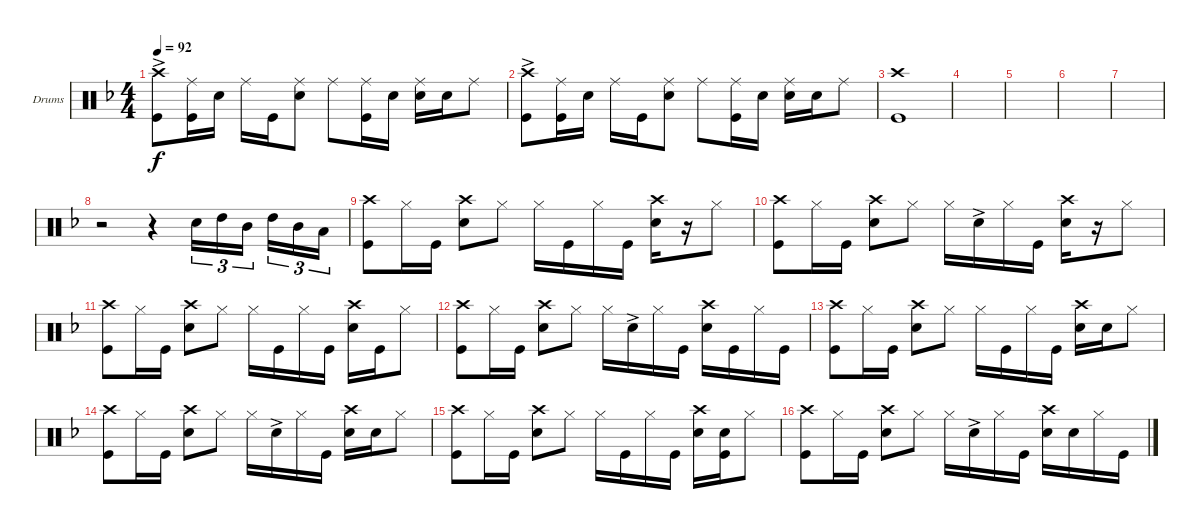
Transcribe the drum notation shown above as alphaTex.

\defaultSystemsLayout 4
\bracketExtendMode groupsimilarinstruments
\firstSystemTrackNameOrientation horizontal
\otherSystemsTrackNameOrientation horizontal
\track ("Drumkit (Collins)" "Drums") {instrument percussion}
\staff {score}
\articulation defaults
\ts (4 4)
\tempo 92
\clef neutral
\ks dminor
("Kick (hit)" "Crash high (hit)"{ac}).8{dy f} ("Kick (hit)" "Ride (middle)").16 "Snare (hit) 2".16 "Ride (middle)".16 "Kick (hit)".16 ("Snare (hit) 2" "Ride (middle)").8 "Ride (middle)".8 ("Ride (middle)" "Kick (hit)").16 "Snare (hit) 2".16 ("Snare (hit) 2" "Ride (middle)").16 "Snare (hit) 2".16 "Ride (middle)".8 |
("Kick (hit)" "Crash high (hit)"{ac}).8 ("Kick (hit)" "Ride (middle)").16 "Snare (hit) 2".16 "Ride (middle)".16 "Kick (hit)".16 ("Snare (hit) 2" "Ride (middle)").8 "Ride (middle)".8 ("Ride (middle)" "Kick (hit)").16 "Snare (hit) 2".16 ("Snare (hit) 2" "Ride (middle)").16 "Snare (hit) 2".16 "Ride (middle)".8 |
("Kick (hit)" "Crash high (hit)").1 |
|
|
|
|
r.2 r.4 "Snare (hit) 2".16{tu (3 2)} "High Tom (hit)".16{tu (3 2)} "Mid Tom (hit)".16{tu (3 2)} "High Tom (hit)".16{tu (3 2)} "Mid Tom (hit)".16{tu (3 2)} "Low Tom (hit)".16{tu (3 2)} |
("Kick (hit)" "Crash high (hit)").8 "Hi-Hat (closed)".16 "Kick (hit)".16 ("Snare (hit) 2" "Crash high (hit)").8 "Hi-Hat (closed)".8 "Hi-Hat (closed)".16 "Kick (hit)".16 "Hi-Hat (closed)".16 "Kick (hit)".16 ("Snare (hit) 2" "Crash high (hit)").16 r.16 "Hi-Hat (closed)".8 |
("Kick (hit)" "Crash high (hit)").8 "Hi-Hat (closed)".16 "Kick (hit)".16 ("Snare (hit) 2" "Crash high (hit)").8 "Hi-Hat (closed)".8 "Hi-Hat (closed)".16 "Snare (hit) 2"{ac}.16 "Hi-Hat (closed)".16 "Kick (hit)".16 ("Snare (hit) 2" "Crash high (hit)").16 r.16 "Hi-Hat (closed)".8 |
("Kick (hit)" "Crash high (hit)").8 "Hi-Hat (closed)".16 "Kick (hit)".16 ("Snare (hit) 2" "Crash high (hit)").8 "Hi-Hat (closed)".8 "Hi-Hat (closed)".16 "Kick (hit)".16 "Hi-Hat (closed)".16 "Kick (hit)".16 ("Snare (hit) 2" "Crash high (hit)").16 "Kick (hit)".16 "Hi-Hat (closed)".8 |
("Kick (hit)" "Crash high (hit)").8 "Hi-Hat (closed)".16 "Kick (hit)".16 ("Snare (hit) 2" "Crash high (hit)").8 "Hi-Hat (closed)".8 "Hi-Hat (closed)".16 "Snare (hit) 2"{ac}.16 "Hi-Hat (closed)".16 "Kick (hit)".16 ("Snare (hit) 2" "Crash high (hit)").16 "Kick (hit)".16 "Hi-Hat (closed)".16 "Kick (hit)".16 |
("Kick (hit)" "Crash high (hit)").8 "Hi-Hat (closed)".16 "Kick (hit)".16 ("Snare (hit) 2" "Crash high (hit)").8 "Hi-Hat (closed)".8 "Hi-Hat (closed)".16 "Kick (hit)".16 "Hi-Hat (closed)".16 "Kick (hit)".16 ("Snare (hit) 2" "Crash high (hit)").16 "Snare (hit) 2".16 "Hi-Hat (closed)".8 |
("Kick (hit)" "Crash high (hit)").8 "Hi-Hat (closed)".16 "Kick (hit)".16 ("Snare (hit) 2" "Crash high (hit)").8 "Hi-Hat (closed)".8 "Hi-Hat (closed)".16 "Snare (hit) 2"{ac}.16 "Hi-Hat (closed)".16 "Kick (hit)".16 ("Snare (hit) 2" "Crash high (hit)").16 "Snare (hit) 2".16 "Hi-Hat (closed)".8 |
("Kick (hit)" "Crash high (hit)").8 "Hi-Hat (closed)".16 "Kick (hit)".16 ("Snare (hit) 2" "Crash high (hit)").8 "Hi-Hat (closed)".8 "Hi-Hat (closed)".16 "Kick (hit)".16 "Hi-Hat (closed)".16 "Kick (hit)".16 ("Snare (hit) 2" "Crash high (hit)").16 ("Kick (hit)" "Snare (hit) 2").16 "Hi-Hat (closed)".8 |
("Kick (hit)" "Crash high (hit)").8 "Hi-Hat (closed)".16 "Kick (hit)".16 ("Snare (hit) 2" "Crash high (hit)").8 "Hi-Hat (closed)".8 "Hi-Hat (closed)".16 "Snare (hit) 2"{ac}.16 "Hi-Hat (closed)".16 "Kick (hit)".16 ("Snare (hit) 2" "Crash high (hit)").16 "Snare (hit) 2".16 "Hi-Hat (closed)".16 "Kick (hit)".16
